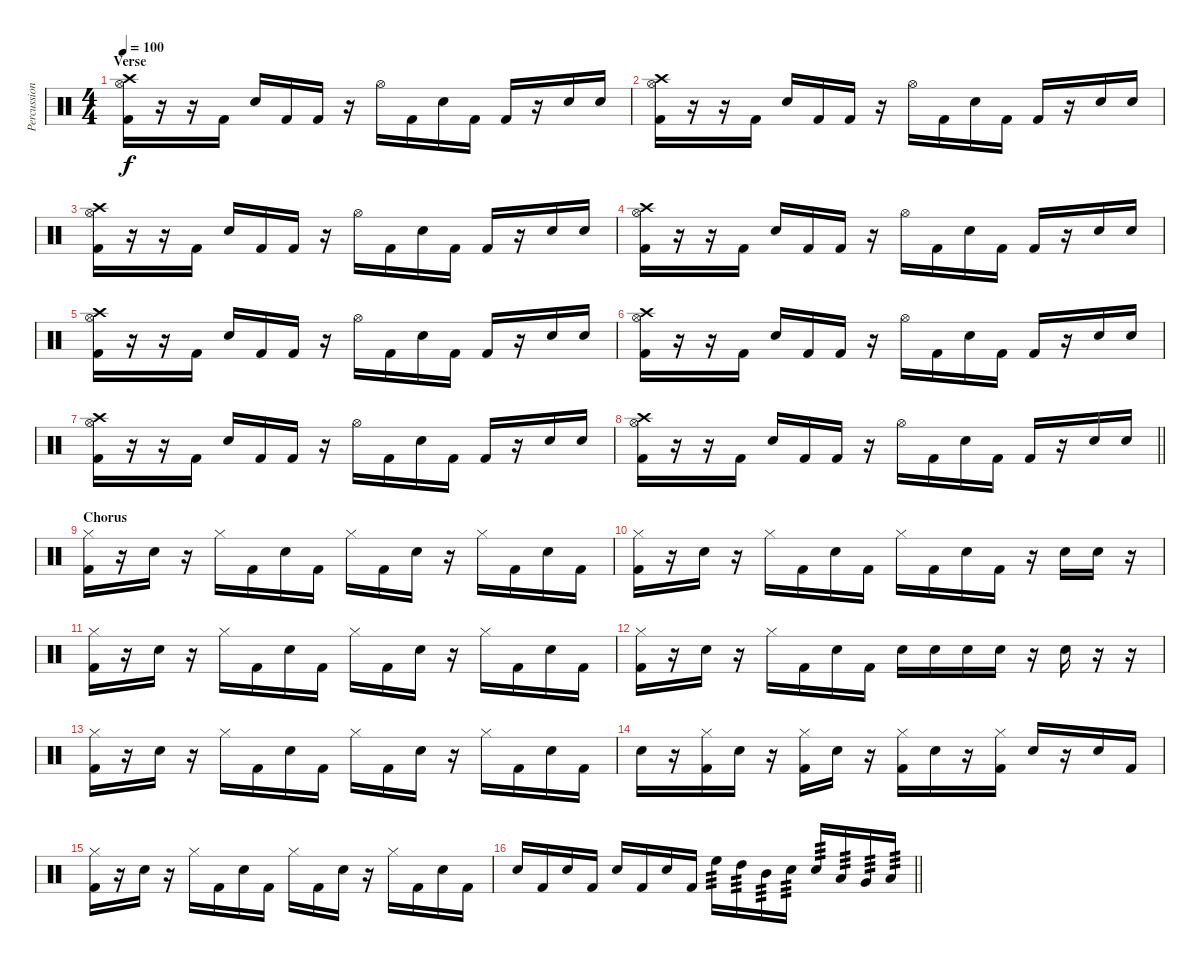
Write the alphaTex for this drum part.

\track ("Percussion" "Percussion") {instrument percussion}
\staff {score}
\articulation defaults
\ts (4 4)
\section ("" "Verse")
\tempo 100
\clef neutral
\ks c
("Crash high (hit)" "Hi-Hat (open)" "Kick (hit) 2").16{dy f} r.16 r.16 "Kick (hit) 2".16 "Snare (hit) 2".16 "Kick (hit) 2".16 "Kick (hit) 2".16 r.16 "Hi-Hat (open)".16 "Kick (hit) 2".16 "Snare (hit) 2".16 "Kick (hit) 2".16 "Kick (hit) 2".16 r.16 "Snare (hit) 2".16 "Snare (hit) 2".16 |
("Crash high (hit)" "Hi-Hat (open)" "Kick (hit) 2").16 r.16 r.16 "Kick (hit) 2".16 "Snare (hit) 2".16 "Kick (hit) 2".16 "Kick (hit) 2".16 r.16 "Hi-Hat (open)".16 "Kick (hit) 2".16 "Snare (hit) 2".16 "Kick (hit) 2".16 "Kick (hit) 2".16 r.16 "Snare (hit) 2".16 "Snare (hit) 2".16 |
("Crash high (hit)" "Hi-Hat (open)" "Kick (hit) 2").16 r.16 r.16 "Kick (hit) 2".16 "Snare (hit) 2".16 "Kick (hit) 2".16 "Kick (hit) 2".16 r.16 "Hi-Hat (open)".16 "Kick (hit) 2".16 "Snare (hit) 2".16 "Kick (hit) 2".16 "Kick (hit) 2".16 r.16 "Snare (hit) 2".16 "Snare (hit) 2".16 |
("Crash high (hit)" "Hi-Hat (open)" "Kick (hit) 2").16 r.16 r.16 "Kick (hit) 2".16 "Snare (hit) 2".16 "Kick (hit) 2".16 "Kick (hit) 2".16 r.16 "Hi-Hat (open)".16 "Kick (hit) 2".16 "Snare (hit) 2".16 "Kick (hit) 2".16 "Kick (hit) 2".16 r.16 "Snare (hit) 2".16 "Snare (hit) 2".16 |
("Crash high (hit)" "Hi-Hat (open)" "Kick (hit) 2").16 r.16 r.16 "Kick (hit) 2".16 "Snare (hit) 2".16 "Kick (hit) 2".16 "Kick (hit) 2".16 r.16 "Hi-Hat (open)".16 "Kick (hit) 2".16 "Snare (hit) 2".16 "Kick (hit) 2".16 "Kick (hit) 2".16 r.16 "Snare (hit) 2".16 "Snare (hit) 2".16 |
("Crash high (hit)" "Hi-Hat (open)" "Kick (hit) 2").16 r.16 r.16 "Kick (hit) 2".16 "Snare (hit) 2".16 "Kick (hit) 2".16 "Kick (hit) 2".16 r.16 "Hi-Hat (open)".16 "Kick (hit) 2".16 "Snare (hit) 2".16 "Kick (hit) 2".16 "Kick (hit) 2".16 r.16 "Snare (hit) 2".16 "Snare (hit) 2".16 |
("Crash high (hit)" "Hi-Hat (open)" "Kick (hit) 2").16 r.16 r.16 "Kick (hit) 2".16 "Snare (hit) 2".16 "Kick (hit) 2".16 "Kick (hit) 2".16 r.16 "Hi-Hat (open)".16 "Kick (hit) 2".16 "Snare (hit) 2".16 "Kick (hit) 2".16 "Kick (hit) 2".16 r.16 "Snare (hit) 2".16 "Snare (hit) 2".16 |
\barLineRight lightlight
("Crash high (hit)" "Hi-Hat (open)" "Kick (hit) 2").16 r.16 r.16 "Kick (hit) 2".16 "Snare (hit) 2".16 "Kick (hit) 2".16 "Kick (hit) 2".16 r.16 "Hi-Hat (open)".16 "Kick (hit) 2".16 "Snare (hit) 2".16 "Kick (hit) 2".16 "Kick (hit) 2".16 r.16 "Snare (hit) 2".16 "Snare (hit) 2".16 |
\section ("" "Chorus")
("Hi-Hat (closed)" "Kick (hit) 2").16 r.16 "Snare (hit) 2".16 r.16 "Hi-Hat (closed)".16 "Kick (hit) 2".16 "Snare (hit) 2".16 "Kick (hit) 2".16 "Hi-Hat (closed)".16 "Kick (hit) 2".16 "Snare (hit) 2".16 r.16 "Hi-Hat (closed)".16 "Kick (hit) 2".16 "Snare (hit) 2".16 "Kick (hit) 2".16 |
("Hi-Hat (closed)" "Kick (hit) 2").16 r.16 "Snare (hit) 2".16 r.16 "Hi-Hat (closed)".16 "Kick (hit) 2".16 "Snare (hit) 2".16 "Kick (hit) 2".16 "Hi-Hat (closed)".16 "Kick (hit) 2".16 "Snare (hit) 2".16 "Kick (hit) 2".16 r.16 "Snare (hit) 2".16 "Snare (hit) 2".16 r.16 |
("Hi-Hat (closed)" "Kick (hit) 2").16 r.16 "Snare (hit) 2".16 r.16 "Hi-Hat (closed)".16 "Kick (hit) 2".16 "Snare (hit) 2".16 "Kick (hit) 2".16 "Hi-Hat (closed)".16 "Kick (hit) 2".16 "Snare (hit) 2".16 r.16 "Hi-Hat (closed)".16 "Kick (hit) 2".16 "Snare (hit) 2".16 "Kick (hit) 2".16 |
("Hi-Hat (closed)" "Kick (hit) 2").16 r.16 "Snare (hit) 2".16 r.16 "Hi-Hat (closed)".16 "Kick (hit) 2".16 "Snare (hit) 2".16 "Kick (hit) 2".16 "Snare (hit) 2".16 "Snare (hit) 2".16 "Snare (hit) 2".16 "Snare (hit) 2".16 r.16 "Snare (hit) 2".16 r.16 r.16 |
("Hi-Hat (closed)" "Kick (hit) 2").16 r.16 "Snare (hit) 2".16 r.16 "Hi-Hat (closed)".16 "Kick (hit) 2".16 "Snare (hit) 2".16 "Kick (hit) 2".16 "Hi-Hat (closed)".16 "Kick (hit) 2".16 "Snare (hit) 2".16 r.16 "Hi-Hat (closed)".16 "Kick (hit) 2".16 "Snare (hit) 2".16 "Kick (hit) 2".16 |
"Snare (hit) 2".16 r.16 ("Hi-Hat (closed)" "Kick (hit) 2").16 "Snare (hit) 2".16 r.16 ("Hi-Hat (closed)" "Kick (hit) 2").16 "Snare (hit) 2".16 r.16 ("Hi-Hat (closed)" "Kick (hit) 2").16 "Snare (hit) 2".16 r.16 ("Hi-Hat (closed)" "Kick (hit) 2").16 "Snare (hit) 2".16 r.16 "Snare (hit) 2".16 "Kick (hit) 2".16 |
("Hi-Hat (closed)" "Kick (hit) 2").16 r.16 "Snare (hit) 2".16 r.16 "Hi-Hat (closed)".16 "Kick (hit) 2".16 "Snare (hit) 2".16 "Kick (hit) 2".16 "Hi-Hat (closed)".16 "Kick (hit) 2".16 "Snare (hit) 2".16 r.16 "Hi-Hat (closed)".16 "Kick (hit) 2".16 "Snare (hit) 2".16 "Kick (hit) 2".16 |
\barLineRight lightlight "Snare (hit) 2".16 "Kick (hit) 2".16 "Snare (hit) 2".16 "Kick (hit) 2".16 "Snare (hit) 2".16 "Kick (hit) 2".16 "Snare (hit) 2".16 "Kick (hit) 2".16 "High Floor Tom (hit)".16{tp 3} "High Tom (hit)".16{tp 3} "Mid Tom (hit)".16{tp 3} "Snare (hit) 2".16{tp 3} "Snare (hit) 2".16{tp 3} "Low Tom (hit)".16{tp 3} "Very Low Tom (hit)".16{tp 3} "Low Floor Tom (hit)".16{tp 3}
